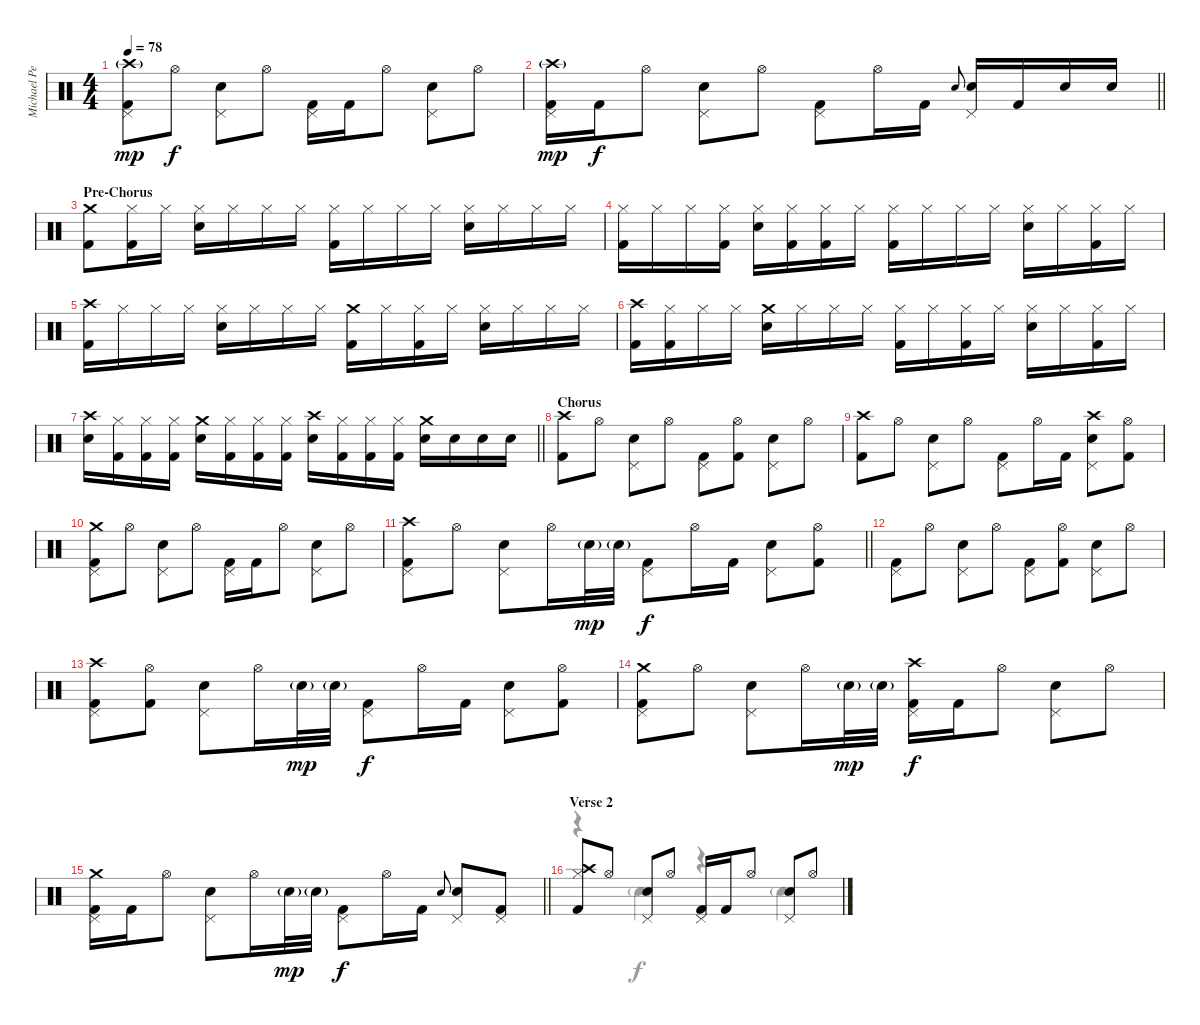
\track ("Michael Pedicone [Drums]" "Michael Pe") {instrument percussion}
\staff {score}
\articulation defaults
\voice
\ts (4 4)
\tempo 78
\clef neutral
\ks c
("Crash high (hit)"{g} "Pedal Hi-Hat (hit)" "Kick (hit) 2").8{dy mp} "Hi-Hat (open)".8{dy f} ("Pedal Hi-Hat (hit)" "Electric Snare (hit)").8 "Hi-Hat (open)".8 ("Pedal Hi-Hat (hit)" "Kick (hit) 2").16 "Kick (hit) 2".16 "Hi-Hat (open)".8 ("Pedal Hi-Hat (hit)" "Electric Snare (hit)").8 "Hi-Hat (open)".8 |
\barLineRight lightlight
("Crash high (hit)"{g} "Pedal Hi-Hat (hit)" "Kick (hit) 2").16{dy mp} "Kick (hit) 2".16{dy f} "Hi-Hat (open)".8 ("Pedal Hi-Hat (hit)" "Electric Snare (hit)").8 "Hi-Hat (open)".8 ("Pedal Hi-Hat (hit)" "Kick (hit) 2").8 "Hi-Hat (open)".16 "Kick (hit) 2".16 "Electric Snare (hit)".8{gr onbeat} ("Pedal Hi-Hat (hit)" "Electric Snare (hit)").16 "Kick (hit) 2".16 "Electric Snare (hit)".16 "Electric Snare (hit)".16 |
\section ("" "Pre-Chorus")
("Crash medium (hit)" "Kick (hit) 2").8 ("Hi-Hat (closed)" "Kick (hit) 2").16 "Hi-Hat (closed)".16 ("Hi-Hat (closed)" "Electric Snare (hit)").16 "Hi-Hat (closed)".16 "Hi-Hat (closed)".16 "Hi-Hat (closed)".16 ("Hi-Hat (closed)" "Kick (hit) 2").16 "Hi-Hat (closed)".16 "Hi-Hat (closed)".16 "Hi-Hat (closed)".16 ("Hi-Hat (closed)" "Electric Snare (hit)").16 "Hi-Hat (closed)".16 "Hi-Hat (closed)".16 "Hi-Hat (closed)".16 |
("Hi-Hat (closed)" "Kick (hit) 2").16 "Hi-Hat (closed)".16 "Hi-Hat (closed)".16 ("Hi-Hat (closed)" "Kick (hit) 2").16 ("Hi-Hat (closed)" "Electric Snare (hit)").16 ("Hi-Hat (closed)" "Kick (hit) 2").16 ("Hi-Hat (closed)" "Kick (hit) 2").16 "Hi-Hat (closed)".16 ("Hi-Hat (closed)" "Kick (hit) 2").16 "Hi-Hat (closed)".16 "Hi-Hat (closed)".16 "Hi-Hat (closed)".16 ("Hi-Hat (closed)" "Electric Snare (hit)").16 "Hi-Hat (closed)".16 ("Hi-Hat (closed)" "Kick (hit) 2").16 "Hi-Hat (closed)".16 |
("Crash high (hit)" "Kick (hit) 2").16 "Hi-Hat (closed)".16 "Hi-Hat (closed)".16 "Hi-Hat (closed)".16 ("Hi-Hat (closed)" "Electric Snare (hit)").16 "Hi-Hat (closed)".16 "Hi-Hat (closed)".16 "Hi-Hat (closed)".16 ("Crash medium (hit)" "Kick (hit) 2").16 "Hi-Hat (closed)".16 ("Hi-Hat (closed)" "Kick (hit) 2").16 "Hi-Hat (closed)".16 ("Hi-Hat (closed)" "Electric Snare (hit)").16 "Hi-Hat (closed)".16 "Hi-Hat (closed)".16 "Hi-Hat (closed)".16 |
("Crash high (hit)" "Kick (hit) 2").16 ("Hi-Hat (closed)" "Kick (hit) 2").16 "Hi-Hat (closed)".16 "Hi-Hat (closed)".16 ("Crash medium (hit)" "Electric Snare (hit)").16 "Hi-Hat (closed)".16 "Hi-Hat (closed)".16 "Hi-Hat (closed)".16 ("Hi-Hat (closed)" "Kick (hit) 2").16 "Hi-Hat (closed)".16 ("Hi-Hat (closed)" "Kick (hit) 2").16 "Hi-Hat (closed)".16 ("Hi-Hat (closed)" "Electric Snare (hit)").16 "Hi-Hat (closed)".16 ("Hi-Hat (closed)" "Kick (hit) 2").16 "Hi-Hat (closed)".16 |
\barLineRight lightlight
("Crash high (hit)" "Electric Snare (hit)").16 ("Hi-Hat (closed)" "Kick (hit) 2").16 ("Hi-Hat (closed)" "Kick (hit) 2").16 ("Hi-Hat (closed)" "Kick (hit) 2").16 ("Crash medium (hit)" "Electric Snare (hit)").16 ("Hi-Hat (closed)" "Kick (hit) 2").16 ("Hi-Hat (closed)" "Kick (hit) 2").16 ("Hi-Hat (closed)" "Kick (hit) 2").16 ("Crash high (hit)" "Electric Snare (hit)").16 ("Hi-Hat (closed)" "Kick (hit) 2").16 ("Hi-Hat (closed)" "Kick (hit) 2").16 ("Hi-Hat (closed)" "Kick (hit) 2").16 ("Crash medium (hit)" "Electric Snare (hit)").16 "Electric Snare (hit)".16 "Electric Snare (hit)".16 "Electric Snare (hit)".16 |
\section ("" "Chorus")
("Crash high (hit)" "Kick (hit) 2").8 "Hi-Hat (open)".8 ("Pedal Hi-Hat (hit)" "Electric Snare (hit)").8 "Hi-Hat (open)".8 ("Pedal Hi-Hat (hit)" "Kick (hit) 2").8 ("Hi-Hat (open)" "Kick (hit) 2").8 ("Pedal Hi-Hat (hit)" "Electric Snare (hit)").8 "Hi-Hat (open)".8 |
("Crash high (hit)" "Kick (hit) 2").8 "Hi-Hat (open)".8 ("Pedal Hi-Hat (hit)" "Electric Snare (hit)").8 "Hi-Hat (open)".8 ("Pedal Hi-Hat (hit)" "Kick (hit) 2").8 "Hi-Hat (open)".16 "Kick (hit) 2".16 ("Crash high (hit)" "Pedal Hi-Hat (hit)" "Electric Snare (hit)").8 ("Hi-Hat (open)" "Kick (hit) 2").8 |
("Crash medium (hit)" "Pedal Hi-Hat (hit)" "Kick (hit) 2").8 "Hi-Hat (open)".8 ("Pedal Hi-Hat (hit)" "Electric Snare (hit)").8 "Hi-Hat (open)".8 ("Pedal Hi-Hat (hit)" "Kick (hit) 2").16 "Kick (hit) 2".16 "Hi-Hat (open)".8 ("Pedal Hi-Hat (hit)" "Electric Snare (hit)").8 "Hi-Hat (open)".8 |
\barLineRight lightlight
("Crash high (hit)" "Pedal Hi-Hat (hit)" "Kick (hit) 2").8 "Hi-Hat (open)".8 ("Pedal Hi-Hat (hit)" "Electric Snare (hit)").8 "Hi-Hat (open)".16 "Electric Snare (hit)"{g}.32{dy mp} "Electric Snare (hit)"{g}.32 ("Pedal Hi-Hat (hit)" "Kick (hit) 2").8{dy f} "Hi-Hat (open)".16 "Kick (hit) 2".16 ("Pedal Hi-Hat (hit)" "Electric Snare (hit)").8 ("Hi-Hat (open)" "Kick (hit) 2").8 |
("Pedal Hi-Hat (hit)" "Kick (hit) 2").8 "Hi-Hat (open)".8 ("Pedal Hi-Hat (hit)" "Electric Snare (hit)").8 "Hi-Hat (open)".8 ("Pedal Hi-Hat (hit)" "Kick (hit) 2").8 ("Hi-Hat (open)" "Kick (hit) 2").8 ("Pedal Hi-Hat (hit)" "Electric Snare (hit)").8 "Hi-Hat (open)".8 |
("Crash high (hit)" "Pedal Hi-Hat (hit)" "Kick (hit) 2").8 ("Hi-Hat (open)" "Kick (hit) 2").8 ("Pedal Hi-Hat (hit)" "Electric Snare (hit)").8 "Hi-Hat (open)".16 "Electric Snare (hit)"{g}.32{dy mp} "Electric Snare (hit)"{g}.32 ("Pedal Hi-Hat (hit)" "Kick (hit) 2").8{dy f} "Hi-Hat (open)".16 "Kick (hit) 2".16 ("Pedal Hi-Hat (hit)" "Electric Snare (hit)").8 ("Hi-Hat (open)" "Kick (hit) 2").8 |
("Crash medium (hit)" "Pedal Hi-Hat (hit)" "Kick (hit) 2").8 "Hi-Hat (open)".8 ("Pedal Hi-Hat (hit)" "Electric Snare (hit)").8 "Hi-Hat (open)".16 "Electric Snare (hit)"{g}.32{dy mp} "Electric Snare (hit)"{g}.32 ("Crash high (hit)" "Pedal Hi-Hat (hit)" "Kick (hit) 2").16{dy f} "Kick (hit) 2".16 "Hi-Hat (open)".8 ("Pedal Hi-Hat (hit)" "Electric Snare (hit)").8 "Hi-Hat (open)".8 |
\barLineRight lightlight
("Crash medium (hit)" "Pedal Hi-Hat (hit)" "Kick (hit) 2").16 "Kick (hit) 2".16 "Hi-Hat (open)".8 ("Pedal Hi-Hat (hit)" "Electric Snare (hit)").8 "Hi-Hat (open)".16 "Electric Snare (hit)"{g}.32{dy mp} "Electric Snare (hit)"{g}.32 ("Pedal Hi-Hat (hit)" "Kick (hit) 2").8{dy f} "Hi-Hat (open)".16 "Kick (hit) 2".16 "Electric Snare (hit)".8{gr onbeat} ("Pedal Hi-Hat (hit)" "Electric Snare (hit)").8 ("Pedal Hi-Hat (hit)" "Kick (hit) 2").8 |
\section ("" "Verse 2")
("Crash high (hit)" "Hi-Hat (closed)" "Kick (hit) 2").8 "Hi-Hat (open)".8 ("Pedal Hi-Hat (hit)" "Electric Snare (hit)").8 "Hi-Hat (open)".8 ("Pedal Hi-Hat (hit)" "Kick (hit) 2").16 "Kick (hit) 2".16 "Hi-Hat (open)".8 ("Pedal Hi-Hat (hit)" "Electric Snare (hit)").8 "Hi-Hat (open)".8
\voice
\clef neutral
\ottava regular
\simile none
\ks c
|
\barLineRight lightlight
|
|
|
|
|
\barLineRight lightlight
|
|
|
|
\barLineRight lightlight
|
|
|
|
\barLineRight lightlight
|
r.4 "Hand Clap (hit)"{g}.4 r.4 "Hand Clap (hit)"{g}.4
